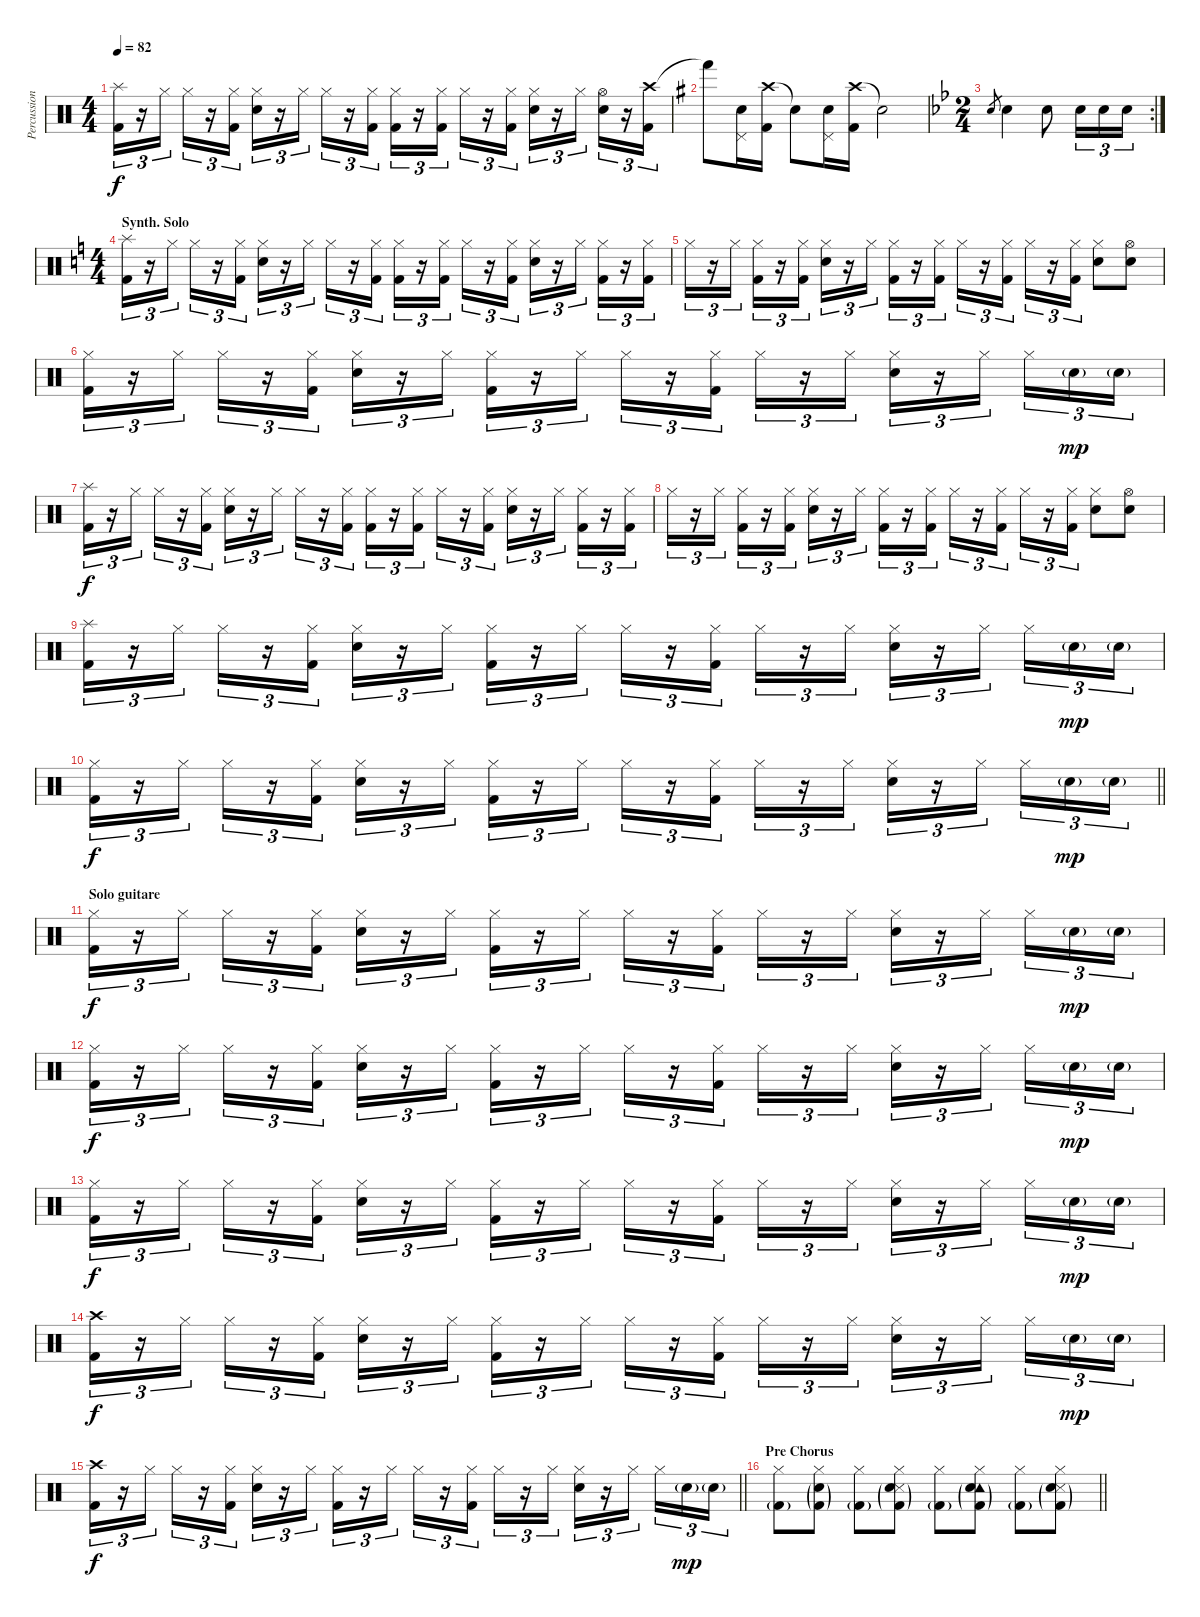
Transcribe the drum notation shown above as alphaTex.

\track ("Percussioni" "Percussion") {instrument percussion}
\staff {score}
\articulation defaults
\ts (4 4)
\tempo 82
\clef neutral
\ks c
("Splash (hit)" "Kick (hit) 2").16{tu (3 2) dy f} r.16{tu (3 2)} "Hi-Hat (closed)".16{tu (3 2)} "Hi-Hat (closed)".16{tu (3 2)} r.16{tu (3 2)} ("Hi-Hat (closed)" "Kick (hit) 2").16{tu (3 2)} ("Hi-Hat (closed)" "Snare (hit) 2").16{tu (3 2)} r.16{tu (3 2)} "Hi-Hat (closed)".16{tu (3 2)} "Hi-Hat (closed)".16{tu (3 2)} r.16{tu (3 2)} ("Hi-Hat (closed)" "Kick (hit) 2").16{tu (3 2)} ("Hi-Hat (closed)" "Kick (hit) 2").16{tu (3 2)} r.16{tu (3 2)} ("Hi-Hat (closed)" "Kick (hit) 2").16{tu (3 2)} "Hi-Hat (closed)".16{tu (3 2)} r.16{tu (3 2)} ("Hi-Hat (closed)" "Kick (hit) 2").16{tu (3 2)} ("Hi-Hat (closed)" "Snare (hit) 2").16{tu (3 2)} r.16{tu (3 2)} "Hi-Hat (closed)".16{tu (3 2)} ("Hi-Hat (open)" "Snare (hit) 2").16{tu (3 2)} r.16{tu (3 2)} ("Crash high (hit)" "Kick (hit) 2").16{tu (3 2)} |
\ks g "Hand (hit)"{t}.8
("Pedal Hi-Hat (hit)" "Snare (hit) 2").16 ("Crash high (hit)" "Kick (hit) 2").16 "Snare (hit)"{t}.8 ("Pedal Hi-Hat (hit)" "Snare (hit) 2").16 ("Crash high (hit)" "Kick (hit) 2").16 "Snare (hit)"{t}.2 |
\rc 2
\ts (2 4)
\ks bb "Snare (hit) 2".8{gr} "Snare (hit) 2".4 "Snare (hit) 2".8 "Snare (hit) 2".16{tu (3 2)} "Snare (hit) 2".16{tu (3 2)} "Snare (hit) 2".16{tu (3 2)}
|
\ts (4 4)
\section ("" "Synth. Solo")
\ks c
("Splash (hit)" "Kick (hit) 2").16{tu (3 2)} r.16{tu (3 2)} "Hi-Hat (closed)".16{tu (3 2)} "Hi-Hat (closed)".16{tu (3 2)} r.16{tu (3 2)} ("Hi-Hat (closed)" "Kick (hit) 2").16{tu (3 2)} ("Hi-Hat (closed)" "Snare (hit) 2").16{tu (3 2)} r.16{tu (3 2)} "Hi-Hat (closed)".16{tu (3 2)} "Hi-Hat (closed)".16{tu (3 2)} r.16{tu (3 2)} ("Hi-Hat (closed)" "Kick (hit) 2").16{tu (3 2)} ("Hi-Hat (closed)" "Kick (hit) 2").16{tu (3 2)} r.16{tu (3 2)} ("Hi-Hat (closed)" "Kick (hit) 2").16{tu (3 2)} "Hi-Hat (closed)".16{tu (3 2)} r.16{tu (3 2)} ("Hi-Hat (closed)" "Kick (hit) 2").16{tu (3 2)} ("Hi-Hat (closed)" "Snare (hit) 2").16{tu (3 2)} r.16{tu (3 2)} "Hi-Hat (closed)".16{tu (3 2)} ("Hi-Hat (closed)" "Kick (hit) 2").16{tu (3 2)} r.16{tu (3 2)} ("Hi-Hat (closed)" "Kick (hit) 2").16{tu (3 2)} |
"Hi-Hat (closed)".16{tu (3 2)} r.16{tu (3 2)} "Hi-Hat (closed)".16{tu (3 2)} ("Hi-Hat (closed)" "Kick (hit) 2").16{tu (3 2)} r.16{tu (3 2)} ("Hi-Hat (closed)" "Kick (hit) 2").16{tu (3 2)} ("Hi-Hat (closed)" "Snare (hit) 2").16{tu (3 2)} r.16{tu (3 2)} "Hi-Hat (closed)".16{tu (3 2)} ("Hi-Hat (closed)" "Kick (hit) 2").16{tu (3 2)} r.16{tu (3 2)} ("Hi-Hat (closed)" "Kick (hit) 2").16{tu (3 2)} "Hi-Hat (closed)".16{tu (3 2)} r.16{tu (3 2)} ("Hi-Hat (closed)" "Kick (hit) 2").16{tu (3 2)} "Hi-Hat (closed)".16{tu (3 2)} r.16{tu (3 2)} ("Hi-Hat (closed)" "Kick (hit) 2").16{tu (3 2)} ("Hi-Hat (closed)" "Snare (hit) 2").8 ("Hi-Hat (open)" "Snare (hit) 2").8 |
("Hi-Hat (closed)" "Kick (hit) 2").16{tu (3 2)} r.16{tu (3 2)} "Hi-Hat (closed)".16{tu (3 2)} "Hi-Hat (closed)".16{tu (3 2)} r.16{tu (3 2)} ("Hi-Hat (closed)" "Kick (hit) 2").16{tu (3 2)} ("Hi-Hat (closed)" "Snare (hit) 2").16{tu (3 2)} r.16{tu (3 2)} "Hi-Hat (closed)".16{tu (3 2)} ("Hi-Hat (closed)" "Kick (hit) 2").16{tu (3 2)} r.16{tu (3 2)} "Hi-Hat (closed)".16{tu (3 2)} "Hi-Hat (closed)".16{tu (3 2)} r.16{tu (3 2)} ("Hi-Hat (closed)" "Kick (hit) 2").16{tu (3 2)} "Hi-Hat (closed)".16{tu (3 2)} r.16{tu (3 2)} "Hi-Hat (closed)".16{tu (3 2)} ("Hi-Hat (closed)" "Snare (hit) 2").16{tu (3 2)} r.16{tu (3 2)} "Hi-Hat (closed)".16{tu (3 2)} "Hi-Hat (closed)".16{tu (3 2)} "Snare (hit) 2"{g}.16{tu (3 2) dy mp} "Snare (hit) 2"{g}.16{tu (3 2)} |
("Splash (hit)" "Kick (hit) 2").16{tu (3 2) dy f} r.16{tu (3 2)} "Hi-Hat (closed)".16{tu (3 2)} "Hi-Hat (closed)".16{tu (3 2)} r.16{tu (3 2)} ("Hi-Hat (closed)" "Kick (hit) 2").16{tu (3 2)} ("Hi-Hat (closed)" "Snare (hit) 2").16{tu (3 2)} r.16{tu (3 2)} "Hi-Hat (closed)".16{tu (3 2)} "Hi-Hat (closed)".16{tu (3 2)} r.16{tu (3 2)} ("Hi-Hat (closed)" "Kick (hit) 2").16{tu (3 2)} ("Hi-Hat (closed)" "Kick (hit) 2").16{tu (3 2)} r.16{tu (3 2)} ("Hi-Hat (closed)" "Kick (hit) 2").16{tu (3 2)} "Hi-Hat (closed)".16{tu (3 2)} r.16{tu (3 2)} ("Hi-Hat (closed)" "Kick (hit) 2").16{tu (3 2)} ("Hi-Hat (closed)" "Snare (hit) 2").16{tu (3 2)} r.16{tu (3 2)} "Hi-Hat (closed)".16{tu (3 2)} ("Hi-Hat (closed)" "Kick (hit) 2").16{tu (3 2)} r.16{tu (3 2)} ("Hi-Hat (closed)" "Kick (hit) 2").16{tu (3 2)} |
"Hi-Hat (closed)".16{tu (3 2)} r.16{tu (3 2)} "Hi-Hat (closed)".16{tu (3 2)} ("Hi-Hat (closed)" "Kick (hit) 2").16{tu (3 2)} r.16{tu (3 2)} ("Hi-Hat (closed)" "Kick (hit) 2").16{tu (3 2)} ("Hi-Hat (closed)" "Snare (hit) 2").16{tu (3 2)} r.16{tu (3 2)} "Hi-Hat (closed)".16{tu (3 2)} ("Hi-Hat (closed)" "Kick (hit) 2").16{tu (3 2)} r.16{tu (3 2)} ("Hi-Hat (closed)" "Kick (hit) 2").16{tu (3 2)} "Hi-Hat (closed)".16{tu (3 2)} r.16{tu (3 2)} ("Hi-Hat (closed)" "Kick (hit) 2").16{tu (3 2)} "Hi-Hat (closed)".16{tu (3 2)} r.16{tu (3 2)} ("Hi-Hat (closed)" "Kick (hit) 2").16{tu (3 2)} ("Hi-Hat (closed)" "Snare (hit) 2").8 ("Hi-Hat (open)" "Snare (hit) 2").8 |
("Splash (hit)" "Kick (hit) 2").16{tu (3 2)} r.16{tu (3 2)} "Hi-Hat (closed)".16{tu (3 2)} "Hi-Hat (closed)".16{tu (3 2)} r.16{tu (3 2)} ("Hi-Hat (closed)" "Kick (hit) 2").16{tu (3 2)} ("Hi-Hat (closed)" "Snare (hit) 2").16{tu (3 2)} r.16{tu (3 2)} "Hi-Hat (closed)".16{tu (3 2)} ("Hi-Hat (closed)" "Kick (hit) 2").16{tu (3 2)} r.16{tu (3 2)} "Hi-Hat (closed)".16{tu (3 2)} "Hi-Hat (closed)".16{tu (3 2)} r.16{tu (3 2)} ("Hi-Hat (closed)" "Kick (hit) 2").16{tu (3 2)} "Hi-Hat (closed)".16{tu (3 2)} r.16{tu (3 2)} "Hi-Hat (closed)".16{tu (3 2)} ("Hi-Hat (closed)" "Snare (hit) 2").16{tu (3 2)} r.16{tu (3 2)} "Hi-Hat (closed)".16{tu (3 2)} "Hi-Hat (closed)".16{tu (3 2)} "Snare (hit) 2"{g}.16{tu (3 2) dy mp} "Snare (hit) 2"{g}.16{tu (3 2)} |
\barLineRight lightlight
("Hi-Hat (closed)" "Kick (hit) 2").16{tu (3 2) dy f} r.16{tu (3 2)} "Hi-Hat (closed)".16{tu (3 2)} "Hi-Hat (closed)".16{tu (3 2)} r.16{tu (3 2)} ("Hi-Hat (closed)" "Kick (hit) 2").16{tu (3 2)} ("Hi-Hat (closed)" "Snare (hit) 2").16{tu (3 2)} r.16{tu (3 2)} "Hi-Hat (closed)".16{tu (3 2)} ("Hi-Hat (closed)" "Kick (hit) 2").16{tu (3 2)} r.16{tu (3 2)} "Hi-Hat (closed)".16{tu (3 2)} "Hi-Hat (closed)".16{tu (3 2)} r.16{tu (3 2)} ("Hi-Hat (closed)" "Kick (hit) 2").16{tu (3 2)} "Hi-Hat (closed)".16{tu (3 2)} r.16{tu (3 2)} "Hi-Hat (closed)".16{tu (3 2)} ("Hi-Hat (closed)" "Snare (hit) 2").16{tu (3 2)} r.16{tu (3 2)} "Hi-Hat (closed)".16{tu (3 2)} "Hi-Hat (closed)".16{tu (3 2)} "Snare (hit) 2"{g}.16{tu (3 2) dy mp} "Snare (hit) 2"{g}.16{tu (3 2)} |
\section ("" "Solo guitare")
("Hi-Hat (closed)" "Kick (hit) 2").16{tu (3 2) dy f} r.16{tu (3 2)} "Hi-Hat (closed)".16{tu (3 2)} "Hi-Hat (closed)".16{tu (3 2)} r.16{tu (3 2)} ("Hi-Hat (closed)" "Kick (hit) 2").16{tu (3 2)} ("Hi-Hat (closed)" "Snare (hit) 2").16{tu (3 2)} r.16{tu (3 2)} "Hi-Hat (closed)".16{tu (3 2)} ("Hi-Hat (closed)" "Kick (hit) 2").16{tu (3 2)} r.16{tu (3 2)} "Hi-Hat (closed)".16{tu (3 2)} "Hi-Hat (closed)".16{tu (3 2)} r.16{tu (3 2)} ("Hi-Hat (closed)" "Kick (hit) 2").16{tu (3 2)} "Hi-Hat (closed)".16{tu (3 2)} r.16{tu (3 2)} "Hi-Hat (closed)".16{tu (3 2)} ("Hi-Hat (closed)" "Snare (hit) 2").16{tu (3 2)} r.16{tu (3 2)} "Hi-Hat (closed)".16{tu (3 2)} "Hi-Hat (closed)".16{tu (3 2)} "Snare (hit) 2"{g}.16{tu (3 2) dy mp} "Snare (hit) 2"{g}.16{tu (3 2)} |
("Hi-Hat (closed)" "Kick (hit) 2").16{tu (3 2) dy f} r.16{tu (3 2)} "Hi-Hat (closed)".16{tu (3 2)} "Hi-Hat (closed)".16{tu (3 2)} r.16{tu (3 2)} ("Hi-Hat (closed)" "Kick (hit) 2").16{tu (3 2)} ("Hi-Hat (closed)" "Snare (hit) 2").16{tu (3 2)} r.16{tu (3 2)} "Hi-Hat (closed)".16{tu (3 2)} ("Hi-Hat (closed)" "Kick (hit) 2").16{tu (3 2)} r.16{tu (3 2)} "Hi-Hat (closed)".16{tu (3 2)} "Hi-Hat (closed)".16{tu (3 2)} r.16{tu (3 2)} ("Hi-Hat (closed)" "Kick (hit) 2").16{tu (3 2)} "Hi-Hat (closed)".16{tu (3 2)} r.16{tu (3 2)} "Hi-Hat (closed)".16{tu (3 2)} ("Hi-Hat (closed)" "Snare (hit) 2").16{tu (3 2)} r.16{tu (3 2)} "Hi-Hat (closed)".16{tu (3 2)} "Hi-Hat (closed)".16{tu (3 2)} "Snare (hit) 2"{g}.16{tu (3 2) dy mp} "Snare (hit) 2"{g}.16{tu (3 2)} |
("Hi-Hat (closed)" "Kick (hit) 2").16{tu (3 2) dy f} r.16{tu (3 2)} "Hi-Hat (closed)".16{tu (3 2)} "Hi-Hat (closed)".16{tu (3 2)} r.16{tu (3 2)} ("Hi-Hat (closed)" "Kick (hit) 2").16{tu (3 2)} ("Hi-Hat (closed)" "Snare (hit) 2").16{tu (3 2)} r.16{tu (3 2)} "Hi-Hat (closed)".16{tu (3 2)} ("Hi-Hat (closed)" "Kick (hit) 2").16{tu (3 2)} r.16{tu (3 2)} "Hi-Hat (closed)".16{tu (3 2)} "Hi-Hat (closed)".16{tu (3 2)} r.16{tu (3 2)} ("Hi-Hat (closed)" "Kick (hit) 2").16{tu (3 2)} "Hi-Hat (closed)".16{tu (3 2)} r.16{tu (3 2)} "Hi-Hat (closed)".16{tu (3 2)} ("Hi-Hat (closed)" "Snare (hit) 2").16{tu (3 2)} r.16{tu (3 2)} "Hi-Hat (closed)".16{tu (3 2)} "Hi-Hat (closed)".16{tu (3 2)} "Snare (hit) 2"{g}.16{tu (3 2) dy mp} "Snare (hit) 2"{g}.16{tu (3 2)} |
("Crash high (hit)" "Kick (hit) 2").16{tu (3 2) dy f} r.16{tu (3 2)} "Hi-Hat (closed)".16{tu (3 2)} "Hi-Hat (closed)".16{tu (3 2)} r.16{tu (3 2)} ("Hi-Hat (closed)" "Kick (hit) 2").16{tu (3 2)} ("Hi-Hat (closed)" "Snare (hit) 2").16{tu (3 2)} r.16{tu (3 2)} "Hi-Hat (closed)".16{tu (3 2)} ("Hi-Hat (closed)" "Kick (hit) 2").16{tu (3 2)} r.16{tu (3 2)} "Hi-Hat (closed)".16{tu (3 2)} "Hi-Hat (closed)".16{tu (3 2)} r.16{tu (3 2)} ("Hi-Hat (closed)" "Kick (hit) 2").16{tu (3 2)} "Hi-Hat (closed)".16{tu (3 2)} r.16{tu (3 2)} "Hi-Hat (closed)".16{tu (3 2)} ("Hi-Hat (closed)" "Snare (hit) 2").16{tu (3 2)} r.16{tu (3 2)} "Hi-Hat (closed)".16{tu (3 2)} "Hi-Hat (closed)".16{tu (3 2)} "Snare (hit) 2"{g}.16{tu (3 2) dy mp} "Snare (hit) 2"{g}.16{tu (3 2)} |
\barLineRight lightlight
("Crash high (hit)" "Kick (hit) 2").16{tu (3 2) dy f} r.16{tu (3 2)} "Hi-Hat (closed)".16{tu (3 2)} "Hi-Hat (closed)".16{tu (3 2)} r.16{tu (3 2)} ("Hi-Hat (closed)" "Kick (hit) 2").16{tu (3 2)} ("Hi-Hat (closed)" "Snare (hit) 2").16{tu (3 2)} r.16{tu (3 2)} "Hi-Hat (closed)".16{tu (3 2)} ("Hi-Hat (closed)" "Kick (hit) 2").16{tu (3 2)} r.16{tu (3 2)} "Hi-Hat (closed)".16{tu (3 2)} "Hi-Hat (closed)".16{tu (3 2)} r.16{tu (3 2)} ("Hi-Hat (closed)" "Kick (hit) 2").16{tu (3 2)} "Hi-Hat (closed)".16{tu (3 2)} r.16{tu (3 2)} "Hi-Hat (closed)".16{tu (3 2)} ("Hi-Hat (closed)" "Snare (hit) 2").16{tu (3 2)} r.16{tu (3 2)} "Hi-Hat (closed)".16{tu (3 2)} "Hi-Hat (closed)".16{tu (3 2)} "Snare (hit) 2"{g}.16{tu (3 2) dy mp} "Snare (hit) 2"{g}.16{tu (3 2)} |
\section ("" "Pre Chorus")
\barLineRight lightlight
("Hi-Hat (closed)" "Kick (hit) 2"{g}).8 ("Hi-Hat (closed)" "Snare (hit) 2"{g} "Kick (hit) 2"{g}).8 ("Hi-Hat (closed)" "Kick (hit) 2"{g}).8 ("Snare (side stick) 3" "Hi-Hat (closed)" "Snare (hit) 2"{g} "Kick (hit) 2"{g}).8 ("Hi-Hat (closed)" "Kick (hit) 2"{g}).8 ("Tambourine (hit)" "Hi-Hat (closed)" "Snare (hit) 2"{g} "Kick (hit) 2"{g}).8 ("Hi-Hat (closed)" "Kick (hit) 2"{g}).8 ("Snare (side stick) 3" "Hi-Hat (closed)" "Snare (hit) 2"{g} "Kick (hit) 2"{g}).8
